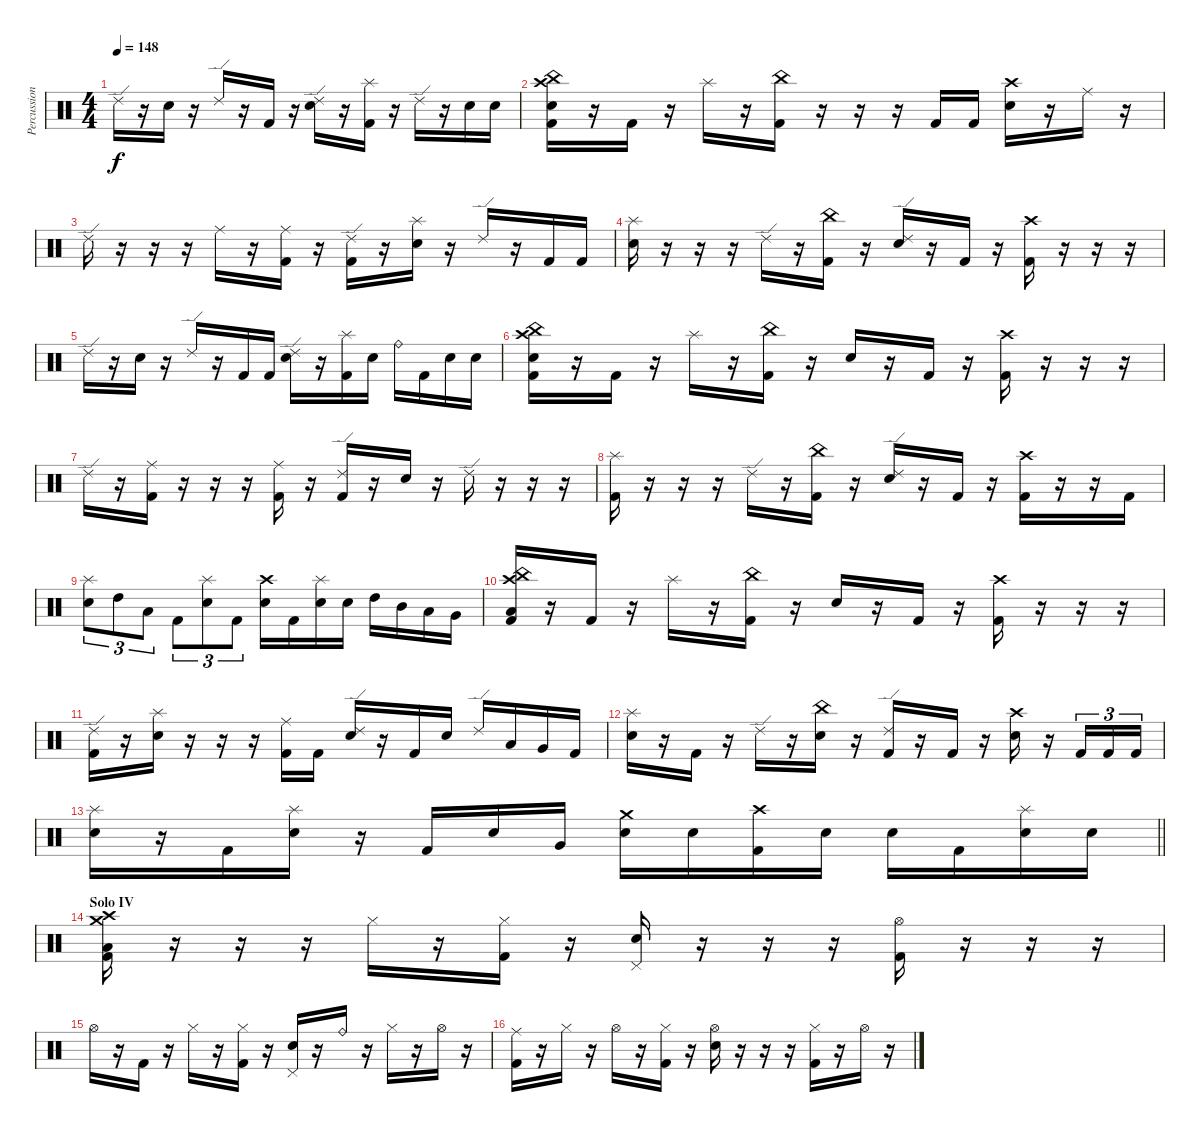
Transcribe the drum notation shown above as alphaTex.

\track ("Percussion" "Percussion") {instrument percussion}
\staff {score}
\articulation defaults
\ts (4 4)
\tempo 148
\clef neutral
\ks c "Ride (edge) 2".16{dy f}
r.16 "Electric Snare (hit)".16 r.16 "Ride (edge) 2".16 r.16 "Kick (hit) 2".16 r.16 ("Ride (edge) 2" "Electric Snare (hit)").16 r.16 ("Splash (hit)" "Kick (hit) 2").16 r.16 "Ride (edge) 2".16 r.16 "Electric Snare (hit)".16 "Electric Snare (hit)".16 |
("Crash high (hit)" "China (hit)" "Electric Snare (hit)" "Kick (hit) 2").16 r.16 "Kick (hit) 2".16 r.16 "Splash (hit)".16 r.16 ("China (hit)" "Kick (hit) 2").16 r.16 r.16 r.16 "Kick (hit) 2".16 "Kick (hit) 2".16 ("Crash high (hit)" "Electric Snare (hit)").16 r.16 "Ride (middle)".16 r.16 |
"Ride (edge) 2".16 r.16 r.16 r.16 "Ride (middle)".16 r.16 ("Ride (middle)" "Kick (hit) 2").16 r.16 ("Ride (edge) 2" "Kick (hit) 2").16 r.16 ("Splash (hit)" "Electric Snare (hit)").16 r.16 "Ride (edge) 2".16 r.16 "Kick (hit) 2".16 "Kick (hit) 2".16 |
("Splash (hit)" "Electric Snare (hit)").16 r.16 r.16 r.16 "Ride (edge) 2".16 r.16 ("China (hit)" "Kick (hit) 2").16 r.16 ("Ride (edge) 2" "Electric Snare (hit)").16 r.16 "Kick (hit) 2".16 r.16 ("Crash high (hit)" "Kick (hit) 2").16 r.16 r.16 r.16 |
"Ride (edge) 2".16 r.16 "Electric Snare (hit)".16 r.16 "Ride (edge) 2".16 r.16 "Kick (hit) 2".16 "Kick (hit) 2".16 ("Ride (edge) 2" "Electric Snare (hit)").16 r.16 ("Splash (hit)" "Kick (hit) 2").16 "Electric Snare (hit)".16 "Ride (bell)".16 "Kick (hit) 2".16 "Electric Snare (hit)".16 "Electric Snare (hit)".16 |
("Crash high (hit)" "China (hit)" "Electric Snare (hit)" "Kick (hit) 2").16 r.16 "Kick (hit) 2".16 r.16 "Splash (hit)".16 r.16 ("China (hit)" "Kick (hit) 2").16 r.16 "Electric Snare (hit)".16 r.16 "Kick (hit) 2".16 r.16 ("Crash high (hit)" "Kick (hit) 2").16 r.16 r.16 r.16 |
"Ride (edge) 2".16 r.16 ("Ride (middle)" "Kick (hit) 2").16 r.16 r.16 r.16 ("Ride (middle)" "Kick (hit) 2").16 r.16 ("Ride (edge) 2" "Kick (hit) 2").16 r.16 "Electric Snare (hit)".16 r.16 "Ride (edge) 2".16 r.16 r.16 r.16 |
("Splash (hit)" "Kick (hit) 2").16 r.16 r.16 r.16 "Ride (edge) 2".16 r.16 ("China (hit)" "Kick (hit) 2").16 r.16 ("Ride (edge) 2" "Electric Snare (hit)").16 r.16 "Kick (hit) 2".16 r.16 ("Crash high (hit)" "Kick (hit) 2").16 r.16 r.16 "Kick (hit) 2".16 |
("Splash (hit)" "Electric Snare (hit)").8{tu (3 2)} "High Tom (hit)".8{tu (3 2)} "Low Floor Tom (hit)".8{tu (3 2)} "Kick (hit) 2".8{tu (3 2)} ("Splash (hit)" "Electric Snare (hit)").8{tu (3 2)} "Kick (hit) 2".8{tu (3 2)} ("Crash high (hit)" "Electric Snare (hit)").16 "Kick (hit) 2".16 ("Splash (hit)" "Electric Snare (hit)").16 "Electric Snare (hit)".16 "High Tom (hit)".16 "Mid Tom (hit)".16 "Low Tom (hit)".16 "Very Low Tom (hit)".16 |
("Crash high (hit)" "China (hit)" "Low Floor Tom (hit)" "Kick (hit) 2").16 r.16 "Kick (hit) 2".16 r.16 "Splash (hit)".16 r.16 ("China (hit)" "Kick (hit) 2").16 r.16 "Electric Snare (hit)".16 r.16 "Kick (hit) 2".16 r.16 ("Crash high (hit)" "Kick (hit) 2").16 r.16 r.16 r.16 |
("Ride (edge) 2" "Kick (hit) 2").16 r.16 ("Splash (hit)" "Electric Snare (hit)").16 r.16 r.16 r.16 ("Ride (middle)" "Kick (hit) 2").16 "Kick (hit) 2".16 ("Ride (edge) 2" "Electric Snare (hit)").16 r.16 "Kick (hit) 2".16 "Electric Snare (hit)".16 "Ride (edge) 2".16 "Low Tom (hit)".16 "Very Low Tom (hit)".16 "Kick (hit) 2".16 |
("Splash (hit)" "Electric Snare (hit)").16 r.16 "Kick (hit) 2".16 r.16 "Ride (edge) 2".16 r.16 ("China (hit)" "Electric Snare (hit)").16 r.16 ("Ride (edge) 2" "Kick (hit) 2").16 r.16 "Kick (hit) 2".16 r.16 ("Crash high (hit)" "Electric Snare (hit)").16 r.16 "Kick (hit) 2".16{tu (3 2)} "Kick (hit) 2".16{tu (3 2)} "Kick (hit) 2".16{tu (3 2)} |
\barLineRight lightlight
("Splash (hit)" "Electric Snare (hit)").16 r.16 "Kick (hit) 2".16 ("Splash (hit)" "Electric Snare (hit)").16 r.16 "Kick (hit) 2".16 "Electric Snare (hit)".16 "Very Low Tom (hit)".16 ("Crash medium (hit)" "Electric Snare (hit)").16 "Electric Snare (hit)".16 ("Crash high (hit)" "Kick (hit) 2").16 "Electric Snare (hit)".16 "Electric Snare (hit)".16 "Kick (hit) 2".16 ("Splash (hit)" "Electric Snare (hit)").16 "Electric Snare (hit)".16 |
\section ("" "Solo IV")
("Crash high (hit)" "Crash medium (hit)" "Low Floor Tom (hit)" "Kick (hit) 2").16 r.16 r.16 r.16 "Hi-Hat (closed)".16 r.16 ("Hi-Hat (closed)" "Kick (hit) 2").16 r.16 ("Pedal Hi-Hat (hit)" "Electric Snare (hit)").16 r.16 r.16 r.16 ("Hi-Hat (open)" "Kick (hit) 2").16 r.16 r.16 r.16 |
"Hi-Hat (open)".16 r.16 "Kick (hit) 2".16 r.16 "Hi-Hat (closed)".16 r.16 ("Hi-Hat (closed)" "Kick (hit) 2").16 r.16 ("Pedal Hi-Hat (hit)" "Electric Snare (hit)").16 r.16 "Ride (bell)".16 r.16 "Hi-Hat (closed)".16 r.16 "Hi-Hat (open)".16 r.16 |
("Ride (middle)" "Kick (hit) 2").16 r.16 "Hi-Hat (closed)".16 r.16 "Hi-Hat (open)".16 r.16 ("Hi-Hat (closed)" "Kick (hit) 2").16 r.16 ("Hi-Hat (open)" "Electric Snare (hit)").16 r.16 r.16 r.16 ("Hi-Hat (closed)" "Kick (hit) 2").16 r.16 "Hi-Hat (open)".16 r.16
